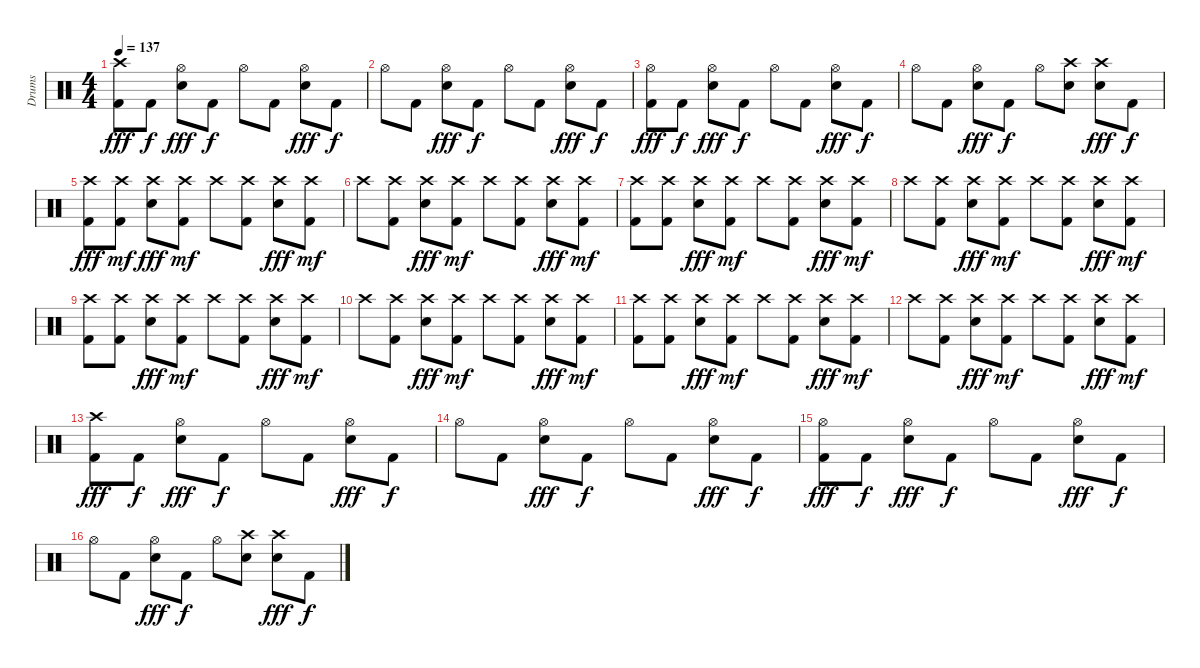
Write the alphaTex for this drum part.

\track ("Drums" "Drums") {instrument percussion}
\staff {score}
\articulation defaults
\ts (4 4)
\tempo 137
\clef neutral
\ks c
("Crash high (hit)" "Kick (hit) 2").8{dy fff volume 13} "Kick (hit) 2".8{dy f} ("Hi-Hat (open)" "Snare (hit) 2").8{dy fff} "Kick (hit) 2".8{dy f} "Hi-Hat (open)".8 "Kick (hit) 2".8 ("Hi-Hat (open)" "Snare (hit) 2").8{dy fff} "Kick (hit) 2".8{dy f} |
"Hi-Hat (open)".8 "Kick (hit) 2".8 ("Hi-Hat (open)" "Snare (hit) 2").8{dy fff} "Kick (hit) 2".8{dy f} "Hi-Hat (open)".8 "Kick (hit) 2".8 ("Hi-Hat (open)" "Snare (hit) 2").8{dy fff} "Kick (hit) 2".8{dy f} |
("Hi-Hat (open)" "Kick (hit) 2").8{dy fff volume 13} "Kick (hit) 2".8{dy f} ("Hi-Hat (open)" "Snare (hit) 2").8{dy fff} "Kick (hit) 2".8{dy f} "Hi-Hat (open)".8 "Kick (hit) 2".8 ("Hi-Hat (open)" "Snare (hit) 2").8{dy fff} "Kick (hit) 2".8{dy f} |
"Hi-Hat (open)".8 "Kick (hit) 2".8 ("Hi-Hat (open)" "Snare (hit) 2").8{dy fff} "Kick (hit) 2".8{dy f} "Hi-Hat (open)".8 ("Crash high (hit)" "Snare (hit) 2").8 ("Crash high (hit)" "Snare (hit) 2").8{dy fff} "Kick (hit) 2".8{dy f} |
("Crash high (hit)" "Kick (hit) 2").8{dy fff volume 13} ("Crash high (hit)" "Kick (hit) 2").8{dy mf} ("Crash high (hit)" "Snare (hit) 2").8{dy fff} ("Crash high (hit)" "Kick (hit) 2").8{dy mf} "Crash high (hit)".8 ("Crash high (hit)" "Kick (hit) 2").8 ("Crash high (hit)" "Snare (hit) 2").8{dy fff} ("Crash high (hit)" "Kick (hit) 2").8{dy mf} |
"Crash high (hit)".8 ("Crash high (hit)" "Kick (hit) 2").8 ("Crash high (hit)" "Snare (hit) 2").8{dy fff} ("Crash high (hit)" "Kick (hit) 2").8{dy mf} "Crash high (hit)".8 ("Crash high (hit)" "Kick (hit) 2").8 ("Crash high (hit)" "Snare (hit) 2").8{dy fff} ("Crash high (hit)" "Kick (hit) 2").8{dy mf} |
("Crash high (hit)" "Kick (hit) 2").8 ("Crash high (hit)" "Kick (hit) 2").8 ("Crash high (hit)" "Snare (hit) 2").8{dy fff} ("Crash high (hit)" "Kick (hit) 2").8{dy mf} "Crash high (hit)".8 ("Crash high (hit)" "Kick (hit) 2").8 ("Crash high (hit)" "Snare (hit) 2").8{dy fff} ("Crash high (hit)" "Kick (hit) 2").8{dy mf} |
"Crash high (hit)".8 ("Crash high (hit)" "Kick (hit) 2").8 ("Crash high (hit)" "Snare (hit) 2").8{dy fff} ("Crash high (hit)" "Kick (hit) 2").8{dy mf} "Crash high (hit)".8 ("Crash high (hit)" "Kick (hit) 2").8 ("Crash high (hit)" "Snare (hit) 2").8{dy fff} ("Crash high (hit)" "Kick (hit) 2").8{dy mf} |
("Crash high (hit)" "Kick (hit) 2").8 ("Crash high (hit)" "Kick (hit) 2").8 ("Crash high (hit)" "Snare (hit) 2").8{dy fff} ("Crash high (hit)" "Kick (hit) 2").8{dy mf} "Crash high (hit)".8 ("Crash high (hit)" "Kick (hit) 2").8 ("Crash high (hit)" "Snare (hit) 2").8{dy fff} ("Crash high (hit)" "Kick (hit) 2").8{dy mf} |
"Crash high (hit)".8 ("Crash high (hit)" "Kick (hit) 2").8 ("Crash high (hit)" "Snare (hit) 2").8{dy fff} ("Crash high (hit)" "Kick (hit) 2").8{dy mf} "Crash high (hit)".8 ("Crash high (hit)" "Kick (hit) 2").8 ("Crash high (hit)" "Snare (hit) 2").8{dy fff} ("Crash high (hit)" "Kick (hit) 2").8{dy mf} |
("Crash high (hit)" "Kick (hit) 2").8 ("Crash high (hit)" "Kick (hit) 2").8 ("Crash high (hit)" "Snare (hit) 2").8{dy fff} ("Crash high (hit)" "Kick (hit) 2").8{dy mf} "Crash high (hit)".8 ("Crash high (hit)" "Kick (hit) 2").8 ("Crash high (hit)" "Snare (hit) 2").8{dy fff} ("Crash high (hit)" "Kick (hit) 2").8{dy mf} |
"Crash high (hit)".8 ("Crash high (hit)" "Kick (hit) 2").8 ("Crash high (hit)" "Snare (hit) 2").8{dy fff} ("Crash high (hit)" "Kick (hit) 2").8{dy mf} "Crash high (hit)".8 ("Crash high (hit)" "Kick (hit) 2").8 ("Crash high (hit)" "Snare (hit) 2").8{dy fff} ("Crash high (hit)" "Kick (hit) 2").8{dy mf} |
("Crash high (hit)" "Kick (hit) 2").8{dy fff volume 13} "Kick (hit) 2".8{dy f} ("Hi-Hat (open)" "Snare (hit) 2").8{dy fff} "Kick (hit) 2".8{dy f} "Hi-Hat (open)".8 "Kick (hit) 2".8 ("Hi-Hat (open)" "Snare (hit) 2").8{dy fff} "Kick (hit) 2".8{dy f} |
"Hi-Hat (open)".8 "Kick (hit) 2".8 ("Hi-Hat (open)" "Snare (hit) 2").8{dy fff} "Kick (hit) 2".8{dy f} "Hi-Hat (open)".8 "Kick (hit) 2".8 ("Hi-Hat (open)" "Snare (hit) 2").8{dy fff} "Kick (hit) 2".8{dy f} |
("Hi-Hat (open)" "Kick (hit) 2").8{dy fff volume 13} "Kick (hit) 2".8{dy f} ("Hi-Hat (open)" "Snare (hit) 2").8{dy fff} "Kick (hit) 2".8{dy f} "Hi-Hat (open)".8 "Kick (hit) 2".8 ("Hi-Hat (open)" "Snare (hit) 2").8{dy fff} "Kick (hit) 2".8{dy f} |
"Hi-Hat (open)".8 "Kick (hit) 2".8 ("Hi-Hat (open)" "Snare (hit) 2").8{dy fff} "Kick (hit) 2".8{dy f} "Hi-Hat (open)".8 ("Crash high (hit)" "Snare (hit) 2").8 ("Crash high (hit)" "Snare (hit) 2").8{dy fff} "Kick (hit) 2".8{dy f}
